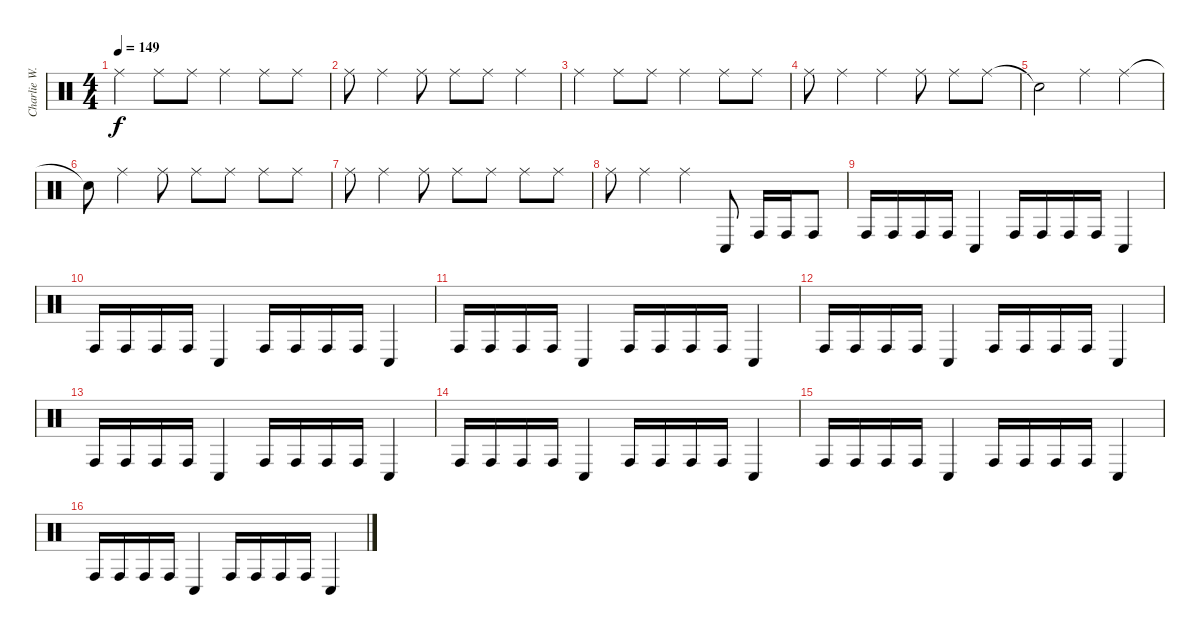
\track ("Charlie W. drums" "Charlie W.") {instrument percussion}
\staff {score}
\articulation defaults
\ts (4 4)
\tempo 149
\clef neutral
\ks c "Ride (middle)".4{dy f} "Ride (middle)".8 "Ride (middle)".8 "Ride (middle)".4 "Ride (middle)".8 "Ride (middle)".8
|
"Ride (middle)".8 "Ride (middle)".4 "Ride (middle)".8 "Ride (middle)".8 "Ride (middle)".8 "Ride (middle)".4 |
"Ride (middle)".4 "Ride (middle)".8 "Ride (middle)".8 "Ride (middle)".4 "Ride (middle)".8 "Ride (middle)".8 |
"Ride (middle)".8 "Ride (middle)".4 "Ride (middle)".4 "Ride (middle)".8 "Ride (middle)".8 "Ride (middle)".8 |
"Snare (hit)"{t}.2 "Ride (middle)".4 "Ride (middle)".4 |
"Snare (hit)"{t}.8 "Ride (middle)".4 "Ride (middle)".8 "Ride (middle)".8 "Ride (middle)".8 "Ride (middle)".8 "Ride (middle)".8 |
"Ride (middle)".8 "Ride (middle)".4 "Ride (middle)".8 "Ride (middle)".8 "Ride (middle)".8 "Ride (middle)".8 "Ride (middle)".8 |
"Ride (middle)".8 "Ride (middle)".4 "Ride (middle)".4 "Conga low (hit)".8 "Conga high (hit)".16 "Conga high (hit)".16 "Conga high (hit)".8 |
"Conga high (hit)".16 "Conga high (hit)".16 "Conga high (hit)".16 "Conga high (hit)".16 "Conga low (hit)".4 "Conga high (hit)".16 "Conga high (hit)".16 "Conga high (hit)".16 "Conga high (hit)".16 "Conga low (hit)".4 |
"Conga high (hit)".16 "Conga high (hit)".16 "Conga high (hit)".16 "Conga high (hit)".16 "Conga low (hit)".4 "Conga high (hit)".16 "Conga high (hit)".16 "Conga high (hit)".16 "Conga high (hit)".16 "Conga low (hit)".4 |
"Conga high (hit)".16 "Conga high (hit)".16 "Conga high (hit)".16 "Conga high (hit)".16 "Conga low (hit)".4 "Conga high (hit)".16 "Conga high (hit)".16 "Conga high (hit)".16 "Conga high (hit)".16 "Conga low (hit)".4 |
"Conga high (hit)".16 "Conga high (hit)".16 "Conga high (hit)".16 "Conga high (hit)".16 "Conga low (hit)".4 "Conga high (hit)".16 "Conga high (hit)".16 "Conga high (hit)".16 "Conga high (hit)".16 "Conga low (hit)".4 |
"Conga high (hit)".16 "Conga high (hit)".16 "Conga high (hit)".16 "Conga high (hit)".16 "Conga low (hit)".4 "Conga high (hit)".16 "Conga high (hit)".16 "Conga high (hit)".16 "Conga high (hit)".16 "Conga low (hit)".4 |
"Conga high (hit)".16 "Conga high (hit)".16 "Conga high (hit)".16 "Conga high (hit)".16 "Conga low (hit)".4 "Conga high (hit)".16 "Conga high (hit)".16 "Conga high (hit)".16 "Conga high (hit)".16 "Conga low (hit)".4 |
"Conga high (hit)".16 "Conga high (hit)".16 "Conga high (hit)".16 "Conga high (hit)".16 "Conga low (hit)".4 "Conga high (hit)".16 "Conga high (hit)".16 "Conga high (hit)".16 "Conga high (hit)".16 "Conga low (hit)".4 |
"Conga high (hit)".16 "Conga high (hit)".16 "Conga high (hit)".16 "Conga high (hit)".16 "Conga low (hit)".4 "Conga high (hit)".16 "Conga high (hit)".16 "Conga high (hit)".16 "Conga high (hit)".16 "Conga low (hit)".4
